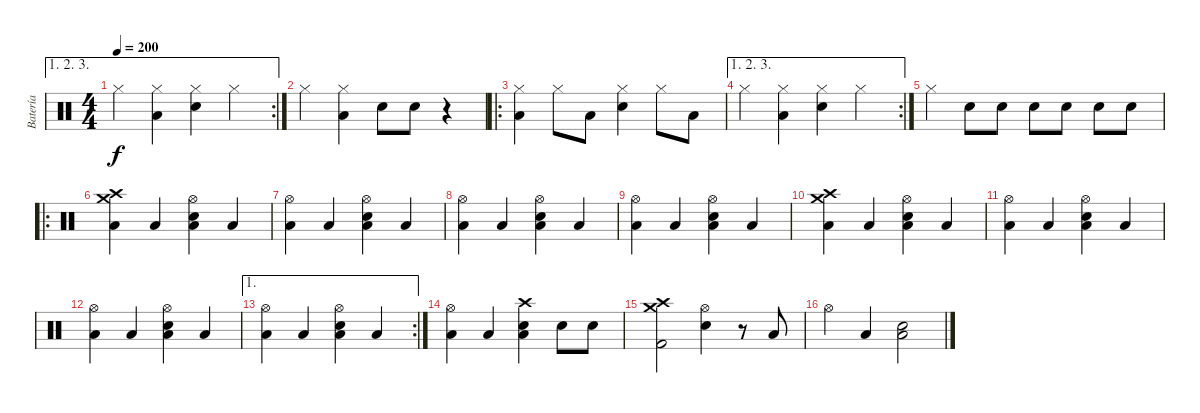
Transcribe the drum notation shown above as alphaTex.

\track ("Batería" "Batería") {instrument percussion}
\staff {score}
\articulation defaults
\ae (1 2 3)
\rc 2
\ts (4 4)
\tempo 200
\clef neutral
\ks c "Hi-Hat (closed)".4{dy f}
("Hi-Hat (closed)" "Low Floor Tom (hit)").4 ("Hi-Hat (closed)" "Electric Snare (hit)").4 "Hi-Hat (closed)".4 |
"Hi-Hat (closed)".4 ("Hi-Hat (closed)" "Low Floor Tom (hit)").4 "Electric Snare (hit)".8 "Electric Snare (hit)".8 r.4 |
\ro
("Hi-Hat (closed)" "Low Floor Tom (hit)").4 "Hi-Hat (closed)".8 "Low Floor Tom (hit)".8 ("Hi-Hat (closed)" "Electric Snare (hit)").4 "Hi-Hat (closed)".8 "Low Floor Tom (hit)".8 |
\ae (1 2 3)
\rc 2 "Hi-Hat (closed)".4
("Hi-Hat (closed)" "Low Floor Tom (hit)").4 ("Hi-Hat (closed)" "Electric Snare (hit)").4 "Hi-Hat (closed)".4 |
"Hi-Hat (closed)".4 "Electric Snare (hit)".8 "Electric Snare (hit)".8 "Electric Snare (hit)".8 "Electric Snare (hit)".8 "Electric Snare (hit)".8 "Electric Snare (hit)".8 |
\ro
("Crash high (hit)" "Crash medium (hit)" "Low Floor Tom (hit)").4 "Low Floor Tom (hit)".4 ("Hi-Hat (open)" "Electric Snare (hit)" "Low Floor Tom (hit)").4 "Low Floor Tom (hit)".4 |
("Hi-Hat (open)" "Low Floor Tom (hit)").4 "Low Floor Tom (hit)".4 ("Hi-Hat (open)" "Electric Snare (hit)" "Low Floor Tom (hit)").4 "Low Floor Tom (hit)".4 |
("Hi-Hat (open)" "Low Floor Tom (hit)").4 "Low Floor Tom (hit)".4 ("Hi-Hat (open)" "Electric Snare (hit)" "Low Floor Tom (hit)").4 "Low Floor Tom (hit)".4 |
("Hi-Hat (open)" "Low Floor Tom (hit)").4 "Low Floor Tom (hit)".4 ("Hi-Hat (open)" "Electric Snare (hit)" "Low Floor Tom (hit)").4 "Low Floor Tom (hit)".4 |
("Crash high (hit)" "Crash medium (hit)" "Low Floor Tom (hit)").4 "Low Floor Tom (hit)".4 ("Hi-Hat (open)" "Electric Snare (hit)" "Low Floor Tom (hit)").4 "Low Floor Tom (hit)".4 |
("Hi-Hat (open)" "Low Floor Tom (hit)").4 "Low Floor Tom (hit)".4 ("Hi-Hat (open)" "Electric Snare (hit)" "Low Floor Tom (hit)").4 "Low Floor Tom (hit)".4 |
("Hi-Hat (open)" "Low Floor Tom (hit)").4 "Low Floor Tom (hit)".4 ("Hi-Hat (open)" "Electric Snare (hit)" "Low Floor Tom (hit)").4 "Low Floor Tom (hit)".4 |
\ae 1
\rc 2
("Hi-Hat (open)" "Low Floor Tom (hit)").4 "Low Floor Tom (hit)".4 ("Hi-Hat (open)" "Electric Snare (hit)" "Low Floor Tom (hit)").4 "Low Floor Tom (hit)".4 |
("Hi-Hat (open)" "Low Floor Tom (hit)").4 "Low Floor Tom (hit)".4 ("Crash high (hit)" "Electric Snare (hit)" "Low Floor Tom (hit)").4 "Electric Snare (hit)".8 "Electric Snare (hit)".8 |
("Crash medium (hit)" "Crash high (hit)" "Kick (hit) 2").2 ("Hi-Hat (open)" "Electric Snare (hit)").4 r.8 "Low Floor Tom (hit)".8 |
"Hi-Hat (open)".4 "Low Floor Tom (hit)".4 ("Low Tom (hit)" "Electric Snare (hit)").2
